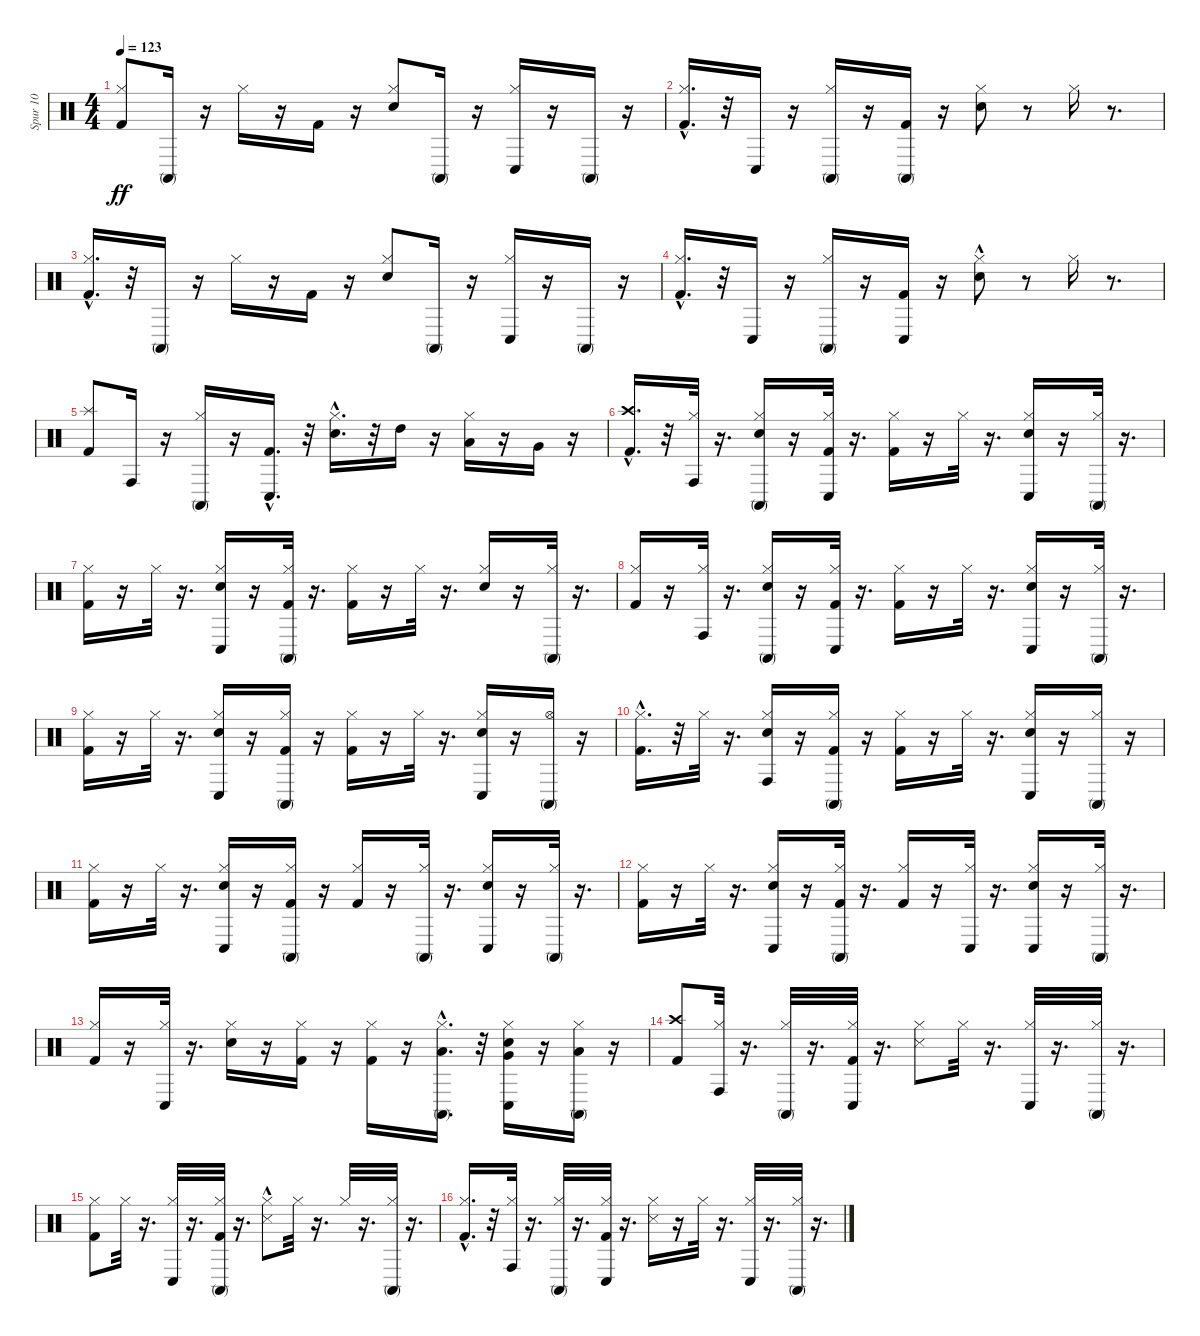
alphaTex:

\track ("Spur 10" "Spur 10") {instrument percussion}
\staff {score}
\articulation defaults
\ts (4 4)
\tempo 123
\clef neutral
\ks c
("Kick (hit) 2" "Hi-Hat (closed)").8{dy ff} "Conga high (mute)".16 r.16 "Hi-Hat (closed)".16 r.16 "Kick (hit) 2".16 r.16 ("Snare (hit) 2" "Hi-Hat (closed)").8 "Conga high (mute)".16 r.16 ("Conga low (hit)" "Hi-Hat (closed)").16 r.16 "Conga high (mute)".16 r.16 |
("Kick (hit) 2"{hac} "Hi-Hat (closed)").16{d} r.32 "Conga low (hit)".16 r.16 ("Conga high (mute)" "Hi-Hat (closed)").16 r.16 ("Kick (hit) 2" "Conga high (mute)").16 r.16 ("Snare (hit) 2" "Hi-Hat (closed)").8 r.8 "Hi-Hat (closed)".16 r.8{d} |
("Kick (hit) 2"{hac} "Hi-Hat (closed)").16{d} r.32 "Conga high (mute)".16 r.16 "Hi-Hat (closed)".16 r.16 "Kick (hit) 2".16 r.16 ("Snare (hit) 2" "Hi-Hat (closed)").8 "Conga high (mute)".16 r.16 ("Conga low (hit)" "Hi-Hat (closed)").16 r.16 "Conga high (mute)".16 r.16 |
("Kick (hit) 2"{hac} "Hi-Hat (closed)").16{d} r.32 "Conga low (hit)".16 r.16 ("Hi-Hat (closed)" "Conga high (mute)").16 r.16 ("Kick (hit) 2" "Conga low (hit)").16 r.16 ("Snare (hit) 2" "Hi-Hat (closed)"{hac}).8 r.8 "Hi-Hat (closed)".16 r.8{d} |
("Kick (hit) 2" "Splash (hit)").8 "Conga high (hit)".16 r.16 ("Conga high (mute)" "Hi-Hat (closed)").16 r.16 ("Kick (hit) 2"{hac} "Conga low (hit)").16{d} r.32 ("Snare (hit) 2"{hac} "Hi-Hat (closed)").16{d} r.32 "High Tom (hit)".16 r.16 ("Low Tom (hit)" "Hi-Hat (closed)").16 r.16 "Very Low Tom (hit)".16 r.16 |
("Kick (hit) 2"{hac} "Crash high (hit)").16{d} r.32 ("Conga high (hit)" "Hi-Hat (closed)").32 r.16{d} ("Snare (hit) 2" "Conga high (mute)" "Hi-Hat (closed)").16 r.16 ("Kick (hit) 2" "Conga low (hit)" "Hi-Hat (closed)").32 r.16{d} ("Kick (hit) 2" "Hi-Hat (closed)").16 r.16 "Hi-Hat (closed)".32 r.16{d} ("Snare (hit) 2" "Conga low (hit)" "Hi-Hat (closed)").16 r.16 ("Conga high (mute)" "Hi-Hat (closed)").32 r.16{d} |
("Kick (hit) 2" "Hi-Hat (closed)").16 r.16 "Hi-Hat (closed)".32 r.16{d} ("Snare (hit) 2" "Hi-Hat (closed)" "Conga low (hit)").16 r.16 ("Kick (hit) 2" "Hi-Hat (closed)" "Conga high (mute)").32 r.16{d} ("Kick (hit) 2" "Hi-Hat (closed)").16 r.16 "Hi-Hat (closed)".32 r.16{d} ("Snare (hit) 2" "Hi-Hat (closed)").16 r.16 ("Conga high (mute)" "Hi-Hat (closed)").32 r.16{d} |
("Kick (hit) 2" "Hi-Hat (closed)").16 r.16 ("Conga high (hit)" "Hi-Hat (closed)").32 r.16{d} ("Snare (hit) 2" "Conga high (mute)" "Hi-Hat (closed)").16 r.16 ("Kick (hit) 2" "Conga low (hit)" "Hi-Hat (closed)").32 r.16{d} ("Kick (hit) 2" "Hi-Hat (closed)").16 r.16 "Hi-Hat (closed)".32 r.16{d} ("Snare (hit) 2" "Conga low (hit)" "Hi-Hat (closed)").16 r.16 ("Conga high (mute)" "Hi-Hat (closed)").32 r.16{d} |
("Kick (hit) 2" "Hi-Hat (closed)").16 r.16 "Hi-Hat (closed)".32 r.16{d} ("Snare (hit) 2" "Conga low (hit)" "Hi-Hat (closed)").16 r.16 ("Kick (hit) 2" "Conga high (mute)" "Hi-Hat (closed)").16 r.16 ("Kick (hit) 2" "Hi-Hat (closed)").16 r.16 "Hi-Hat (closed)".32 r.16{d} ("Snare (hit) 2" "Conga low (hit)" "Hi-Hat (closed)").16 r.16 ("Conga high (mute)" "Hi-Hat (open)").16 r.16 |
("Kick (hit) 2"{hac} "Hi-Hat (closed)").16{d} r.32 "Hi-Hat (closed)".32 r.16{d} ("Snare (hit) 2" "Conga high (hit)" "Hi-Hat (closed)").16 r.16 ("Kick (hit) 2" "Conga high (mute)" "Hi-Hat (closed)").16 r.16 ("Kick (hit) 2" "Hi-Hat (closed)").16 r.16 "Hi-Hat (closed)".32 r.16{d} ("Snare (hit) 2" "Conga low (hit)" "Hi-Hat (closed)").16 r.16 ("Conga high (mute)" "Hi-Hat (closed)").16 r.16 |
("Kick (hit) 2" "Hi-Hat (closed)").16 r.16 "Hi-Hat (closed)".32 r.16{d} ("Snare (hit) 2" "Conga low (hit)" "Hi-Hat (closed)").16 r.16 ("Kick (hit) 2" "Conga high (mute)" "Hi-Hat (closed)").16 r.16 ("Kick (hit) 2" "Hi-Hat (closed)").16 r.16 ("Conga high (mute)" "Hi-Hat (closed)").32 r.16{d} ("Snare (hit) 2" "Conga low (hit)" "Hi-Hat (closed)").16 r.16 ("Conga high (mute)" "Hi-Hat (closed)").32 r.16{d} |
("Kick (hit) 2" "Hi-Hat (closed)").16 r.16 "Hi-Hat (closed)".32 r.16{d} ("Snare (hit) 2" "Conga low (hit)" "Hi-Hat (closed)").16 r.16 ("Kick (hit) 2" "Conga high (mute)" "Hi-Hat (closed)").32 r.16{d} ("Kick (hit) 2" "Hi-Hat (closed)").16 r.16 ("Conga low (hit)" "Hi-Hat (closed)").32 r.16{d} ("Snare (hit) 2" "Conga low (hit)" "Hi-Hat (closed)").16 r.16 ("Hi-Hat (closed)" "Conga high (mute)").32 r.16{d} |
("Kick (hit) 2" "Hi-Hat (closed)").16 r.16 ("Conga low (hit)" "Hi-Hat (closed)").32 r.16{d} ("Snare (hit) 2" "Hi-Hat (closed)").16 r.16 ("Kick (hit) 2" "Hi-Hat (closed)").16 r.16 ("Kick (hit) 2" "Hi-Hat (closed)").16 r.16 ("Low Tom (hit)"{hac} "Conga high (mute)" "Hi-Hat (closed)").16{d} r.32 ("Snare (hit) 2" "Conga low (hit)" "Very Low Tom (hit)" "Hi-Hat (closed)").16 r.16 ("Hi-Hat (closed)" "Conga high (mute)" "Low Floor Tom (hit)").16 r.16 |
("Kick (hit) 2" "Crash high (hit)").8 ("Conga high (hit)" "Hi-Hat (closed)").32 r.16{d} ("Conga high (mute)" "Hi-Hat (closed)").32 r.16{d} ("Kick (hit) 2" "Conga low (hit)" "Hi-Hat (closed)").32 r.16{d} ("Snare (side stick) 3" "Hi-Hat (closed)").8 "Hi-Hat (closed)".32 r.16{d} ("Conga low (hit)" "Hi-Hat (closed)").32 r.16{d} ("Conga high (mute)" "Hi-Hat (closed)").32 r.16{d} |
("Kick (hit) 2" "Hi-Hat (closed)").8 "Hi-Hat (closed)".32 r.16{d} ("Hi-Hat (closed)" "Conga low (hit)").32 r.16{d} ("Kick (hit) 2" "Hi-Hat (closed)" "Conga high (mute)").32 r.16{d} ("Snare (side stick) 3"{hac} "Hi-Hat (closed)").8 "Hi-Hat (closed)".32 r.16{d} "Hi-Hat (closed)".32 r.16{d} ("Conga high (mute)" "Hi-Hat (closed)").32 r.16{d} |
("Kick (hit) 2"{hac} "Hi-Hat (closed)").16{d} r.32 ("Conga high (hit)" "Hi-Hat (closed)").32 r.16{d} ("Conga high (mute)" "Hi-Hat (closed)").32 r.16{d} ("Kick (hit) 2" "Conga low (hit)" "Hi-Hat (closed)").32 r.16{d} ("Snare (side stick) 3" "Hi-Hat (closed)").16 r.16 "Hi-Hat (closed)".32 r.16{d} ("Conga low (hit)" "Hi-Hat (closed)").32 r.16{d} ("Conga high (mute)" "Hi-Hat (closed)").32 r.16{d}
